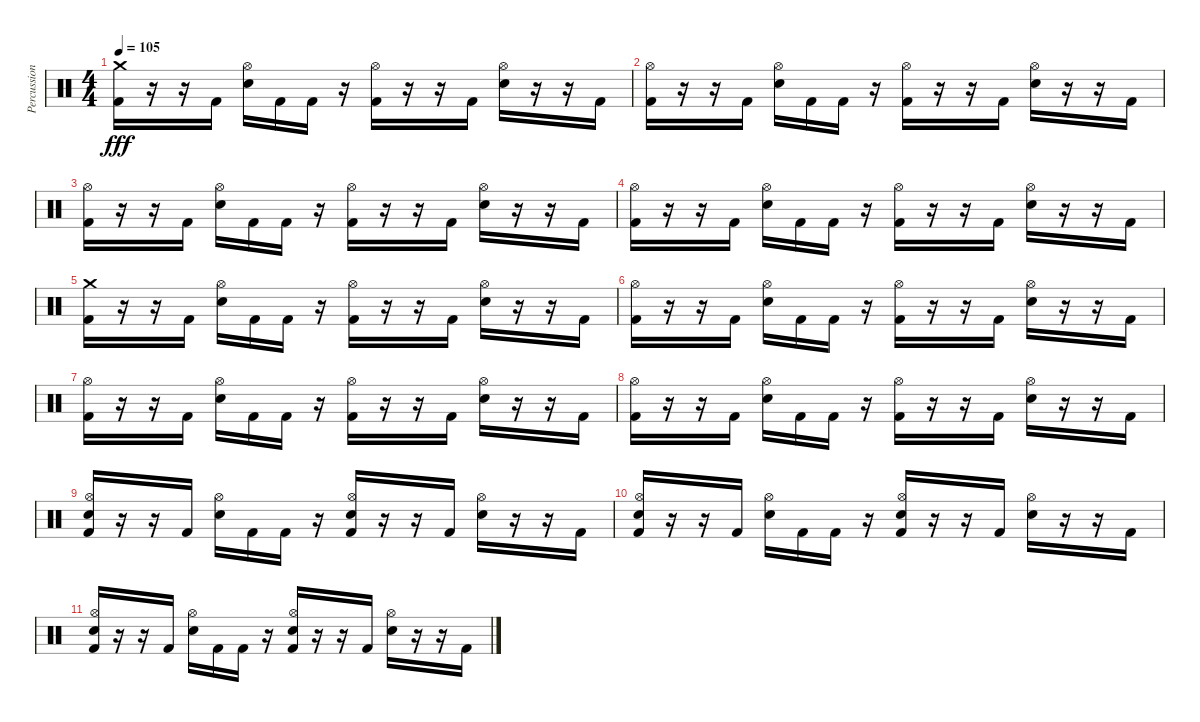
\track ("Percussions" "Percussion") {instrument percussion}
\staff {score}
\articulation defaults
\ts (4 4)
\tempo 105
\clef neutral
\ks c
("Crash medium (hit)" "Kick (hit) 2").16{dy fff} r.16 r.16 "Kick (hit) 2".16 ("Hi-Hat (open)" "Electric Snare (hit)").16 "Kick (hit) 2".16 "Kick (hit) 2".16 r.16 ("Hi-Hat (open)" "Kick (hit) 2").16 r.16 r.16 "Kick (hit) 2".16 ("Hi-Hat (open)" "Electric Snare (hit)").16 r.16 r.16 "Kick (hit) 2".16 |
("Hi-Hat (open)" "Kick (hit) 2").16 r.16 r.16 "Kick (hit) 2".16 ("Hi-Hat (open)" "Electric Snare (hit)").16 "Kick (hit) 2".16 "Kick (hit) 2".16 r.16 ("Hi-Hat (open)" "Kick (hit) 2").16 r.16 r.16 "Kick (hit) 2".16 ("Hi-Hat (open)" "Electric Snare (hit)").16 r.16 r.16 "Kick (hit) 2".16 |
("Hi-Hat (open)" "Kick (hit) 2").16 r.16 r.16 "Kick (hit) 2".16 ("Hi-Hat (open)" "Electric Snare (hit)").16 "Kick (hit) 2".16 "Kick (hit) 2".16 r.16 ("Hi-Hat (open)" "Kick (hit) 2").16 r.16 r.16 "Kick (hit) 2".16 ("Hi-Hat (open)" "Electric Snare (hit)").16 r.16 r.16 "Kick (hit) 2".16 |
("Hi-Hat (open)" "Kick (hit) 2").16 r.16 r.16 "Kick (hit) 2".16 ("Hi-Hat (open)" "Electric Snare (hit)").16 "Kick (hit) 2".16 "Kick (hit) 2".16 r.16 ("Hi-Hat (open)" "Kick (hit) 2").16 r.16 r.16 "Kick (hit) 2".16 ("Hi-Hat (open)" "Electric Snare (hit)").16 r.16 r.16 "Kick (hit) 2".16 |
("Crash medium (hit)" "Kick (hit) 2").16 r.16 r.16 "Kick (hit) 2".16 ("Hi-Hat (open)" "Electric Snare (hit)").16 "Kick (hit) 2".16 "Kick (hit) 2".16 r.16 ("Hi-Hat (open)" "Kick (hit) 2").16 r.16 r.16 "Kick (hit) 2".16 ("Hi-Hat (open)" "Electric Snare (hit)").16 r.16 r.16 "Kick (hit) 2".16 |
("Hi-Hat (open)" "Kick (hit) 2").16 r.16 r.16 "Kick (hit) 2".16 ("Hi-Hat (open)" "Electric Snare (hit)").16 "Kick (hit) 2".16 "Kick (hit) 2".16 r.16 ("Hi-Hat (open)" "Kick (hit) 2").16 r.16 r.16 "Kick (hit) 2".16 ("Hi-Hat (open)" "Electric Snare (hit)").16 r.16 r.16 "Kick (hit) 2".16 |
("Hi-Hat (open)" "Kick (hit) 2").16 r.16 r.16 "Kick (hit) 2".16 ("Hi-Hat (open)" "Electric Snare (hit)").16 "Kick (hit) 2".16 "Kick (hit) 2".16 r.16 ("Hi-Hat (open)" "Kick (hit) 2").16 r.16 r.16 "Kick (hit) 2".16 ("Hi-Hat (open)" "Electric Snare (hit)").16 r.16 r.16 "Kick (hit) 2".16 |
("Hi-Hat (open)" "Kick (hit) 2").16 r.16 r.16 "Kick (hit) 2".16 ("Hi-Hat (open)" "Electric Snare (hit)").16 "Kick (hit) 2".16 "Kick (hit) 2".16 r.16 ("Hi-Hat (open)" "Kick (hit) 2").16 r.16 r.16 "Kick (hit) 2".16 ("Hi-Hat (open)" "Electric Snare (hit)").16 r.16 r.16 "Kick (hit) 2".16 |
("Hi-Hat (open)" "Electric Snare (hit)" "Kick (hit) 2").16 r.16 r.16 "Kick (hit) 2".16 ("Hi-Hat (open)" "Electric Snare (hit)").16 "Kick (hit) 2".16 "Kick (hit) 2".16 r.16 ("Hi-Hat (open)" "Electric Snare (hit)" "Kick (hit) 2").16 r.16 r.16 "Kick (hit) 2".16 ("Hi-Hat (open)" "Electric Snare (hit)").16 r.16 r.16 "Kick (hit) 2".16 |
("Hi-Hat (open)" "Electric Snare (hit)" "Kick (hit) 2").16 r.16 r.16 "Kick (hit) 2".16 ("Hi-Hat (open)" "Electric Snare (hit)").16 "Kick (hit) 2".16 "Kick (hit) 2".16 r.16 ("Hi-Hat (open)" "Electric Snare (hit)" "Kick (hit) 2").16 r.16 r.16 "Kick (hit) 2".16 ("Hi-Hat (open)" "Electric Snare (hit)").16 r.16 r.16 "Kick (hit) 2".16 |
("Hi-Hat (open)" "Electric Snare (hit)" "Kick (hit) 2").16 r.16 r.16 "Kick (hit) 2".16 ("Hi-Hat (open)" "Electric Snare (hit)").16 "Kick (hit) 2".16 "Kick (hit) 2".16 r.16 ("Hi-Hat (open)" "Electric Snare (hit)" "Kick (hit) 2").16 r.16 r.16 "Kick (hit) 2".16 ("Hi-Hat (open)" "Electric Snare (hit)").16 r.16 r.16 "Kick (hit) 2".16
